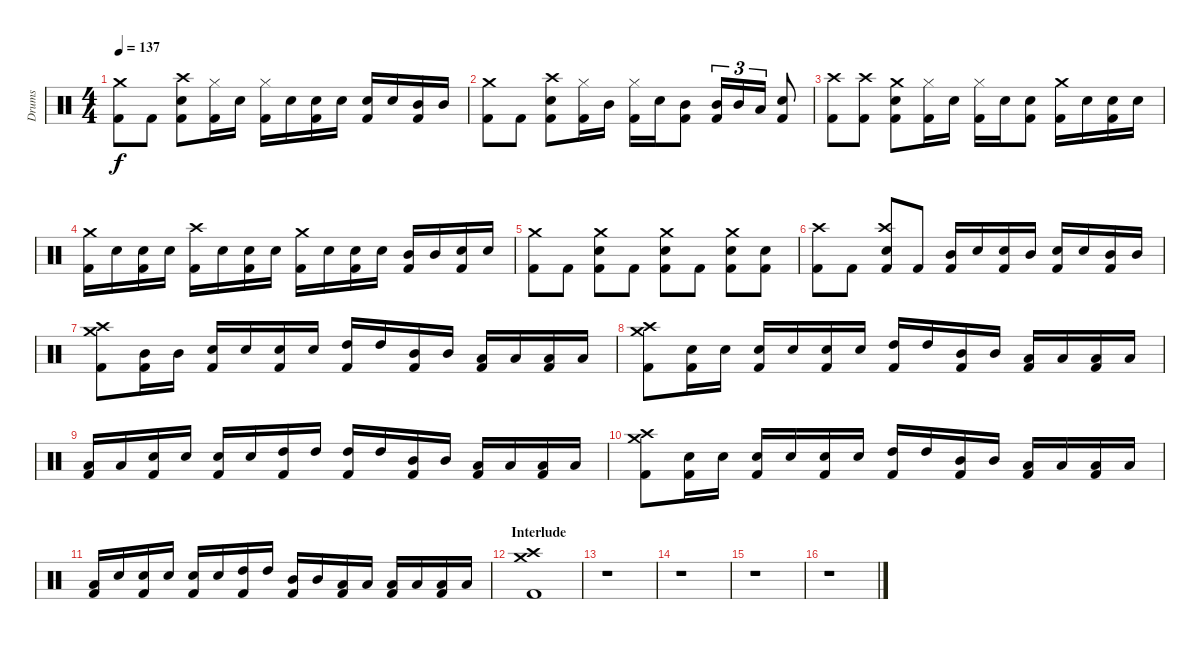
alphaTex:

\track ("Drums" "Drums") {instrument percussion}
\staff {score}
\articulation defaults
\ts (4 4)
\tempo 137
\clef neutral
\ks c
("Crash medium (hit)" "Kick (hit) 2").8{dy f} "Kick (hit) 2".8 ("Crash high (hit)" "Snare (hit) 2" "Kick (hit) 2").8 ("Hi-Hat (closed)" "Kick (hit) 2").16 "Snare (hit) 2".16 ("Hi-Hat (closed)" "Kick (hit) 2").16 "Snare (hit) 2".16 ("Snare (hit) 2" "Kick (hit) 2").16 "Snare (hit) 2".16 ("Snare (hit) 2" "Kick (hit) 2").16 "Snare (hit) 2".16 ("Mid Tom (hit)" "Kick (hit) 2").16 "Mid Tom (hit)".16 |
("Crash medium (hit)" "Kick (hit) 2").8 "Kick (hit) 2".8 ("Crash high (hit)" "Snare (hit) 2" "Kick (hit) 2").8 ("Hi-Hat (closed)" "Kick (hit) 2").16 "Mid Tom (hit)".16 ("Hi-Hat (closed)" "Kick (hit) 2").16 "Snare (hit) 2".16 ("Mid Tom (hit)" "Kick (hit) 2").8 ("Mid Tom (hit)" "Kick (hit) 2").16{tu (3 2)} "Mid Tom (hit)".16{tu (3 2)} "Low Tom (hit)".16{tu (3 2)} ("Snare (hit) 2" "Kick (hit) 2").8 |
("Crash high (hit)" "Kick (hit) 2").8 ("Crash high (hit)" "Kick (hit) 2").8 ("Crash medium (hit)" "Snare (hit) 2" "Kick (hit) 2").8 ("Hi-Hat (closed)" "Kick (hit) 2").16 "Snare (hit) 2".16 ("Hi-Hat (closed)" "Kick (hit) 2").16 "Snare (hit) 2".16 ("Snare (hit) 2" "Kick (hit) 2").8 ("Crash medium (hit)" "Kick (hit) 2").16 "Snare (hit) 2".16 ("Snare (hit) 2" "Kick (hit) 2").16 "Snare (hit) 2".16 |
("Crash medium (hit)" "Kick (hit) 2").16 "Snare (hit) 2".16 ("Snare (hit) 2" "Kick (hit) 2").16 "Snare (hit) 2".16 ("Crash high (hit)" "Kick (hit) 2").16 "Snare (hit) 2".16 ("Snare (hit) 2" "Kick (hit) 2").16 "Snare (hit) 2".16 ("Crash medium (hit)" "Kick (hit) 2").16 "Snare (hit) 2".16 ("Snare (hit) 2" "Kick (hit) 2").16 "Snare (hit) 2".16 ("Mid Tom (hit)" "Kick (hit) 2").16 "Mid Tom (hit)".16 ("Snare (hit) 2" "Kick (hit) 2").16 "Snare (hit) 2".16 |
("Crash medium (hit)" "Kick (hit) 2").8 "Kick (hit) 2".8 ("Crash medium (hit)" "Snare (hit) 2" "Kick (hit) 2").8 "Kick (hit) 2".8 ("Crash medium (hit)" "Snare (hit) 2" "Kick (hit) 2").8 "Kick (hit) 2".8 ("Crash medium (hit)" "Snare (hit) 2" "Kick (hit) 2").8 ("Snare (hit) 2" "Kick (hit) 2").8 |
("Crash high (hit)" "Kick (hit) 2").8 "Kick (hit) 2".8 ("Crash high (hit)" "Snare (hit) 2" "Kick (hit) 2").8 "Kick (hit) 2".8 ("Mid Tom (hit)" "Kick (hit) 2").16 "Snare (hit) 2".16 ("Snare (hit) 2" "Kick (hit) 2").16 "Mid Tom (hit)".16 ("Snare (hit) 2" "Kick (hit) 2").16 "Snare (hit) 2".16 ("Mid Tom (hit)" "Kick (hit) 2").16 "Mid Tom (hit)".16 |
("Crash medium (hit)" "Crash high (hit)" "Kick (hit) 2").8 ("Mid Tom (hit)" "Kick (hit) 2").16 "Mid Tom (hit)".16 ("Snare (hit) 2" "Kick (hit) 2").16 "Snare (hit) 2".16 ("Snare (hit) 2" "Kick (hit) 2").16 "Snare (hit) 2".16 ("High Tom (hit)" "Kick (hit) 2").16 "High Tom (hit)".16 ("Mid Tom (hit)" "Kick (hit) 2").16 "Mid Tom (hit)".16 ("Low Tom (hit)" "Kick (hit) 2").16 "Low Tom (hit)".16 ("Low Floor Tom (hit)" "Kick (hit) 2").16 "Low Floor Tom (hit)".16 |
("Crash medium (hit)" "Crash high (hit)" "Kick (hit) 2").8 ("Snare (hit) 2" "Kick (hit) 2").16 "Snare (hit) 2".16 ("Snare (hit) 2" "Kick (hit) 2").16 "Snare (hit) 2".16 ("Snare (hit) 2" "Kick (hit) 2").16 "Snare (hit) 2".16 ("High Tom (hit)" "Kick (hit) 2").16 "High Tom (hit)".16 ("Mid Tom (hit)" "Kick (hit) 2").16 "Mid Tom (hit)".16 ("Low Tom (hit)" "Kick (hit) 2").16 "Low Tom (hit)".16 ("Low Floor Tom (hit)" "Kick (hit) 2").16 "Low Floor Tom (hit)".16 |
("Low Tom (hit)" "Kick (hit) 2").16 "Low Tom (hit)".16 ("Snare (hit) 2" "Kick (hit) 2").16 "Snare (hit) 2".16 ("Snare (hit) 2" "Kick (hit) 2").16 "Snare (hit) 2".16 ("High Tom (hit)" "Kick (hit) 2").16 "High Tom (hit)".16 ("High Tom (hit)" "Kick (hit) 2").16 "High Tom (hit)".16 ("Mid Tom (hit)" "Kick (hit) 2").16 "Mid Tom (hit)".16 ("Low Tom (hit)" "Kick (hit) 2").16 "Low Tom (hit)".16 ("Low Floor Tom (hit)" "Kick (hit) 2").16 "Low Floor Tom (hit)".16 |
("Crash medium (hit)" "Crash high (hit)" "Kick (hit) 2").8 ("Snare (hit) 2" "Kick (hit) 2").16 "Snare (hit) 2".16 ("Snare (hit) 2" "Kick (hit) 2").16 "Snare (hit) 2".16 ("Snare (hit) 2" "Kick (hit) 2").16 "Snare (hit) 2".16 ("High Tom (hit)" "Kick (hit) 2").16 "High Tom (hit)".16 ("Mid Tom (hit)" "Kick (hit) 2").16 "Mid Tom (hit)".16 ("Low Tom (hit)" "Kick (hit) 2").16 "Low Tom (hit)".16 ("Low Floor Tom (hit)" "Kick (hit) 2").16 "Low Floor Tom (hit)".16 |
("Low Tom (hit)" "Kick (hit) 2").16 "Snare (hit) 2".16 ("Snare (hit) 2" "Kick (hit) 2").16 "Snare (hit) 2".16 ("Snare (hit) 2" "Kick (hit) 2").16 "Snare (hit) 2".16 ("High Tom (hit)" "Kick (hit) 2").16 "High Tom (hit)".16 ("Mid Tom (hit)" "Kick (hit) 2").16 "Mid Tom (hit)".16 ("Low Tom (hit)" "Kick (hit) 2").16 "Low Tom (hit)".16 ("Low Tom (hit)" "Kick (hit) 2").16 "Low Tom (hit)".16 ("Low Floor Tom (hit)" "Kick (hit) 2").16 "Low Floor Tom (hit)".16 |
\section ("" "Interlude")
("Crash high (hit)" "Crash medium (hit)" "Kick (hit) 2").1 |
r.1 |
r.1 |
r.1 |
r.1
